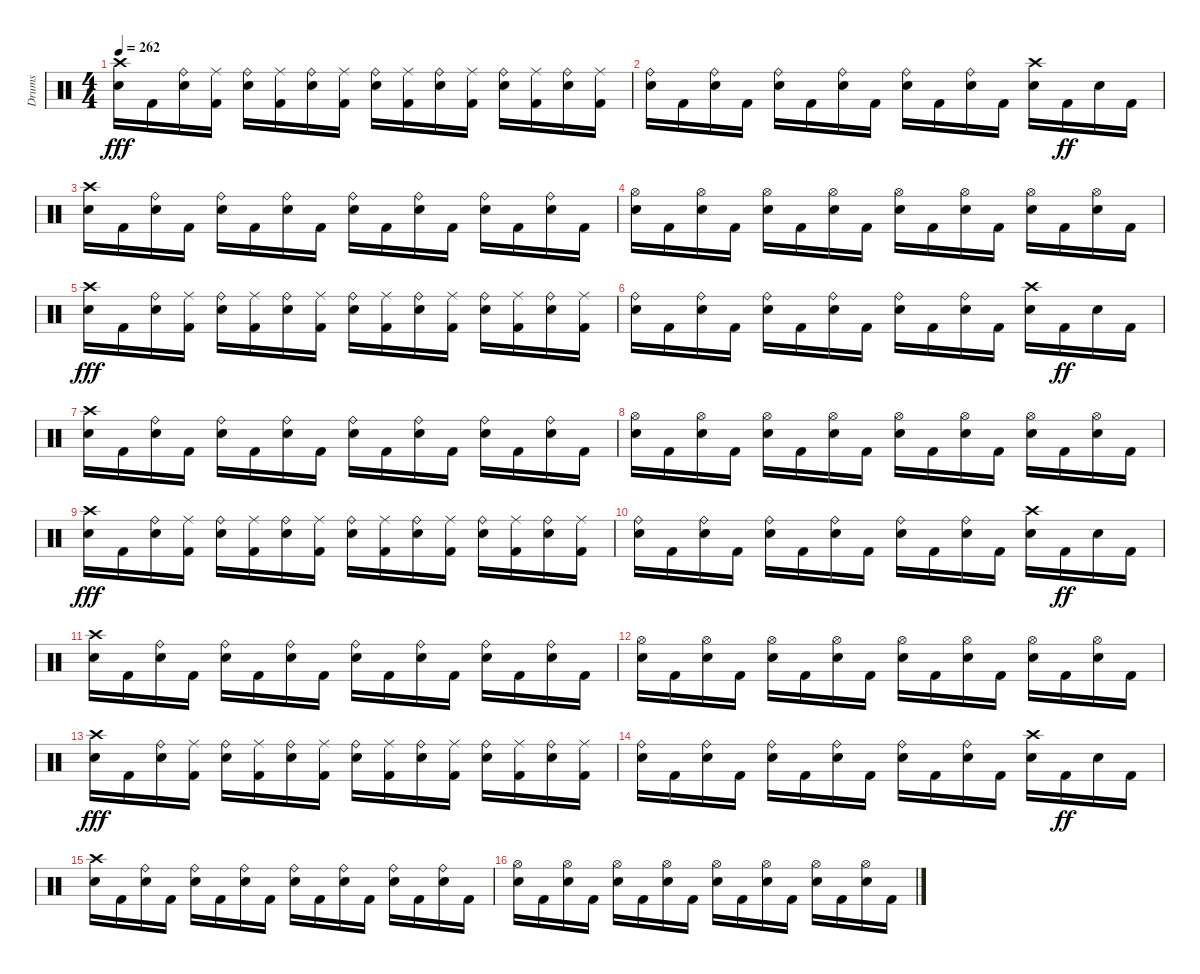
\track ("Drums" "Drums") {instrument percussion}
\staff {score}
\articulation defaults
\ts (4 4)
\tempo 262
\clef neutral
\ks c
("Crash high (hit)" "Snare (hit) 2").16{dy fff} "Kick (hit) 2".16 ("Snare (hit) 2" "Ride (bell)").16 ("Kick (hit) 2" "Ride (middle)").16 ("Snare (hit) 2" "Ride (bell)").16 ("Kick (hit) 2" "Ride (middle)").16 ("Snare (hit) 2" "Ride (bell)").16 ("Kick (hit) 2" "Ride (middle)").16 ("Snare (hit) 2" "Ride (bell)").16 ("Kick (hit) 2" "Ride (middle)").16 ("Snare (hit) 2" "Ride (bell)").16 ("Kick (hit) 2" "Ride (middle)").16 ("Snare (hit) 2" "Ride (bell)").16 ("Kick (hit) 2" "Ride (middle)").16 ("Snare (hit) 2" "Ride (bell)").16 ("Kick (hit) 2" "Ride (middle)").16 |
("Snare (hit) 2" "Ride (bell)").16 "Kick (hit) 2".16 ("Snare (hit) 2" "Ride (bell)").16 "Kick (hit) 2".16 ("Snare (hit) 2" "Ride (bell)").16 "Kick (hit) 2".16 ("Snare (hit) 2" "Ride (bell)").16 "Kick (hit) 2".16 ("Snare (hit) 2" "Ride (bell)").16 "Kick (hit) 2".16 ("Snare (hit) 2" "Ride (bell)").16 "Kick (hit) 2".16 ("Crash high (hit)" "Snare (hit) 2").16 "Kick (hit) 2".16{dy ff} "Snare (hit) 2".16 "Kick (hit) 2".16 |
("Crash high (hit)" "Snare (hit) 2").16 "Kick (hit) 2".16 ("Snare (hit) 2" "Ride (bell)").16 "Kick (hit) 2".16 ("Snare (hit) 2" "Ride (bell)").16 "Kick (hit) 2".16 ("Snare (hit) 2" "Ride (bell)").16 "Kick (hit) 2".16 ("Snare (hit) 2" "Ride (bell)").16 "Kick (hit) 2".16 ("Snare (hit) 2" "Ride (bell)").16 "Kick (hit) 2".16 ("Snare (hit) 2" "Ride (bell)").16 "Kick (hit) 2".16 ("Snare (hit) 2" "Ride (bell)").16 "Kick (hit) 2".16 |
("Hi-Hat (open)" "Snare (hit) 2").16 "Kick (hit) 2".16 ("Hi-Hat (open)" "Snare (hit) 2").16 "Kick (hit) 2".16 ("Hi-Hat (open)" "Snare (hit) 2").16 "Kick (hit) 2".16 ("Hi-Hat (open)" "Snare (hit) 2").16 "Kick (hit) 2".16 ("Hi-Hat (open)" "Snare (hit) 2").16 "Kick (hit) 2".16 ("Hi-Hat (open)" "Snare (hit) 2").16 "Kick (hit) 2".16 ("Hi-Hat (open)" "Snare (hit) 2").16 "Kick (hit) 2".16 ("Hi-Hat (open)" "Snare (hit) 2").16 "Kick (hit) 2".16 |
("Crash high (hit)" "Snare (hit) 2").16{dy fff} "Kick (hit) 2".16 ("Snare (hit) 2" "Ride (bell)").16 ("Kick (hit) 2" "Ride (middle)").16 ("Snare (hit) 2" "Ride (bell)").16 ("Kick (hit) 2" "Ride (middle)").16 ("Snare (hit) 2" "Ride (bell)").16 ("Kick (hit) 2" "Ride (middle)").16 ("Snare (hit) 2" "Ride (bell)").16 ("Kick (hit) 2" "Ride (middle)").16 ("Snare (hit) 2" "Ride (bell)").16 ("Kick (hit) 2" "Ride (middle)").16 ("Snare (hit) 2" "Ride (bell)").16 ("Kick (hit) 2" "Ride (middle)").16 ("Snare (hit) 2" "Ride (bell)").16 ("Kick (hit) 2" "Ride (middle)").16 |
("Snare (hit) 2" "Ride (bell)").16 "Kick (hit) 2".16 ("Snare (hit) 2" "Ride (bell)").16 "Kick (hit) 2".16 ("Snare (hit) 2" "Ride (bell)").16 "Kick (hit) 2".16 ("Snare (hit) 2" "Ride (bell)").16 "Kick (hit) 2".16 ("Snare (hit) 2" "Ride (bell)").16 "Kick (hit) 2".16 ("Snare (hit) 2" "Ride (bell)").16 "Kick (hit) 2".16 ("Crash high (hit)" "Snare (hit) 2").16 "Kick (hit) 2".16{dy ff} "Snare (hit) 2".16 "Kick (hit) 2".16 |
("Crash high (hit)" "Snare (hit) 2").16 "Kick (hit) 2".16 ("Snare (hit) 2" "Ride (bell)").16 "Kick (hit) 2".16 ("Snare (hit) 2" "Ride (bell)").16 "Kick (hit) 2".16 ("Snare (hit) 2" "Ride (bell)").16 "Kick (hit) 2".16 ("Snare (hit) 2" "Ride (bell)").16 "Kick (hit) 2".16 ("Snare (hit) 2" "Ride (bell)").16 "Kick (hit) 2".16 ("Snare (hit) 2" "Ride (bell)").16 "Kick (hit) 2".16 ("Snare (hit) 2" "Ride (bell)").16 "Kick (hit) 2".16 |
("Hi-Hat (open)" "Snare (hit) 2").16 "Kick (hit) 2".16 ("Hi-Hat (open)" "Snare (hit) 2").16 "Kick (hit) 2".16 ("Hi-Hat (open)" "Snare (hit) 2").16 "Kick (hit) 2".16 ("Hi-Hat (open)" "Snare (hit) 2").16 "Kick (hit) 2".16 ("Hi-Hat (open)" "Snare (hit) 2").16 "Kick (hit) 2".16 ("Hi-Hat (open)" "Snare (hit) 2").16 "Kick (hit) 2".16 ("Hi-Hat (open)" "Snare (hit) 2").16 "Kick (hit) 2".16 ("Hi-Hat (open)" "Snare (hit) 2").16 "Kick (hit) 2".16 |
("Crash high (hit)" "Snare (hit) 2").16{dy fff} "Kick (hit) 2".16 ("Snare (hit) 2" "Ride (bell)").16 ("Kick (hit) 2" "Ride (middle)").16 ("Snare (hit) 2" "Ride (bell)").16 ("Kick (hit) 2" "Ride (middle)").16 ("Snare (hit) 2" "Ride (bell)").16 ("Kick (hit) 2" "Ride (middle)").16 ("Snare (hit) 2" "Ride (bell)").16 ("Kick (hit) 2" "Ride (middle)").16 ("Snare (hit) 2" "Ride (bell)").16 ("Kick (hit) 2" "Ride (middle)").16 ("Snare (hit) 2" "Ride (bell)").16 ("Kick (hit) 2" "Ride (middle)").16 ("Snare (hit) 2" "Ride (bell)").16 ("Kick (hit) 2" "Ride (middle)").16 |
("Snare (hit) 2" "Ride (bell)").16 "Kick (hit) 2".16 ("Snare (hit) 2" "Ride (bell)").16 "Kick (hit) 2".16 ("Snare (hit) 2" "Ride (bell)").16 "Kick (hit) 2".16 ("Snare (hit) 2" "Ride (bell)").16 "Kick (hit) 2".16 ("Snare (hit) 2" "Ride (bell)").16 "Kick (hit) 2".16 ("Snare (hit) 2" "Ride (bell)").16 "Kick (hit) 2".16 ("Crash high (hit)" "Snare (hit) 2").16 "Kick (hit) 2".16{dy ff} "Snare (hit) 2".16 "Kick (hit) 2".16 |
("Crash high (hit)" "Snare (hit) 2").16 "Kick (hit) 2".16 ("Snare (hit) 2" "Ride (bell)").16 "Kick (hit) 2".16 ("Snare (hit) 2" "Ride (bell)").16 "Kick (hit) 2".16 ("Snare (hit) 2" "Ride (bell)").16 "Kick (hit) 2".16 ("Snare (hit) 2" "Ride (bell)").16 "Kick (hit) 2".16 ("Snare (hit) 2" "Ride (bell)").16 "Kick (hit) 2".16 ("Snare (hit) 2" "Ride (bell)").16 "Kick (hit) 2".16 ("Snare (hit) 2" "Ride (bell)").16 "Kick (hit) 2".16 |
("Hi-Hat (open)" "Snare (hit) 2").16 "Kick (hit) 2".16 ("Hi-Hat (open)" "Snare (hit) 2").16 "Kick (hit) 2".16 ("Hi-Hat (open)" "Snare (hit) 2").16 "Kick (hit) 2".16 ("Hi-Hat (open)" "Snare (hit) 2").16 "Kick (hit) 2".16 ("Hi-Hat (open)" "Snare (hit) 2").16 "Kick (hit) 2".16 ("Hi-Hat (open)" "Snare (hit) 2").16 "Kick (hit) 2".16 ("Hi-Hat (open)" "Snare (hit) 2").16 "Kick (hit) 2".16 ("Hi-Hat (open)" "Snare (hit) 2").16 "Kick (hit) 2".16 |
("Crash high (hit)" "Snare (hit) 2").16{dy fff} "Kick (hit) 2".16 ("Snare (hit) 2" "Ride (bell)").16 ("Kick (hit) 2" "Ride (middle)").16 ("Snare (hit) 2" "Ride (bell)").16 ("Kick (hit) 2" "Ride (middle)").16 ("Snare (hit) 2" "Ride (bell)").16 ("Kick (hit) 2" "Ride (middle)").16 ("Snare (hit) 2" "Ride (bell)").16 ("Kick (hit) 2" "Ride (middle)").16 ("Snare (hit) 2" "Ride (bell)").16 ("Kick (hit) 2" "Ride (middle)").16 ("Snare (hit) 2" "Ride (bell)").16 ("Kick (hit) 2" "Ride (middle)").16 ("Snare (hit) 2" "Ride (bell)").16 ("Kick (hit) 2" "Ride (middle)").16 |
("Snare (hit) 2" "Ride (bell)").16 "Kick (hit) 2".16 ("Snare (hit) 2" "Ride (bell)").16 "Kick (hit) 2".16 ("Snare (hit) 2" "Ride (bell)").16 "Kick (hit) 2".16 ("Snare (hit) 2" "Ride (bell)").16 "Kick (hit) 2".16 ("Snare (hit) 2" "Ride (bell)").16 "Kick (hit) 2".16 ("Snare (hit) 2" "Ride (bell)").16 "Kick (hit) 2".16 ("Crash high (hit)" "Snare (hit) 2").16 "Kick (hit) 2".16{dy ff} "Snare (hit) 2".16 "Kick (hit) 2".16 |
("Crash high (hit)" "Snare (hit) 2").16 "Kick (hit) 2".16 ("Snare (hit) 2" "Ride (bell)").16 "Kick (hit) 2".16 ("Snare (hit) 2" "Ride (bell)").16 "Kick (hit) 2".16 ("Snare (hit) 2" "Ride (bell)").16 "Kick (hit) 2".16 ("Snare (hit) 2" "Ride (bell)").16 "Kick (hit) 2".16 ("Snare (hit) 2" "Ride (bell)").16 "Kick (hit) 2".16 ("Snare (hit) 2" "Ride (bell)").16 "Kick (hit) 2".16 ("Snare (hit) 2" "Ride (bell)").16 "Kick (hit) 2".16 |
("Hi-Hat (open)" "Snare (hit) 2").16 "Kick (hit) 2".16 ("Hi-Hat (open)" "Snare (hit) 2").16 "Kick (hit) 2".16 ("Hi-Hat (open)" "Snare (hit) 2").16 "Kick (hit) 2".16 ("Hi-Hat (open)" "Snare (hit) 2").16 "Kick (hit) 2".16 ("Hi-Hat (open)" "Snare (hit) 2").16 "Kick (hit) 2".16 ("Hi-Hat (open)" "Snare (hit) 2").16 "Kick (hit) 2".16 ("Hi-Hat (open)" "Snare (hit) 2").16 "Kick (hit) 2".16 ("Hi-Hat (open)" "Snare (hit) 2").16 "Kick (hit) 2".16
